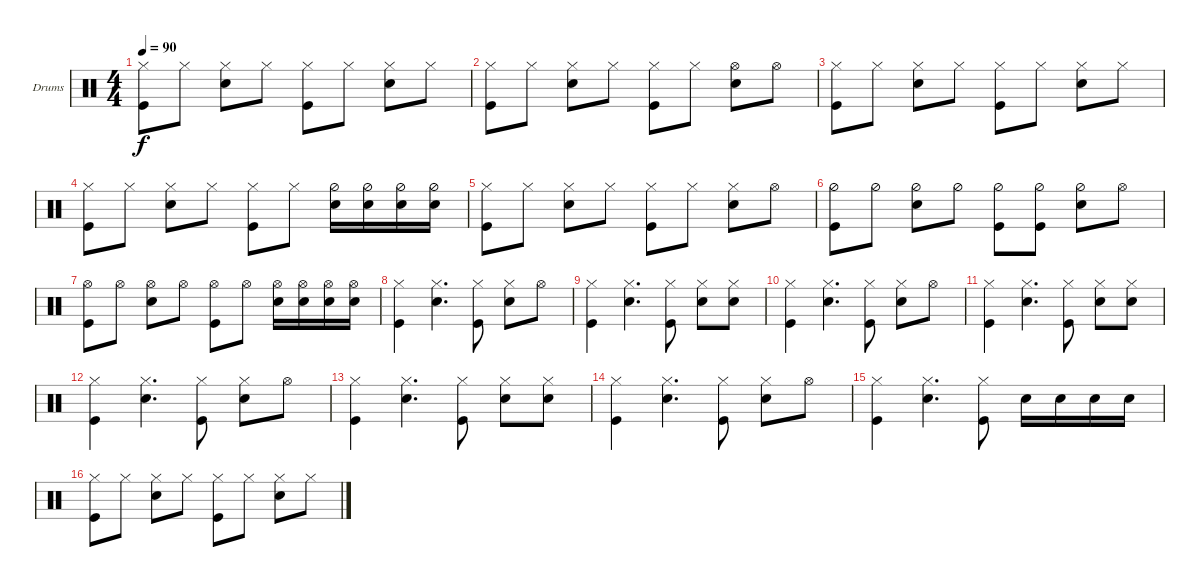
\bracketExtendMode groupsimilarinstruments
\firstSystemTrackNameOrientation horizontal
\otherSystemsTrackNameOrientation horizontal
\track ("Drumkit" "Drums") {instrument percussion}
\staff {score}
\articulation defaults
\ts (4 4)
\tempo 90
\clef neutral
\ks c
("Kick (hit)" "Hi-Hat (closed)").8{dy f} "Hi-Hat (closed)".8 ("Hi-Hat (closed)" "Snare (hit) 2").8 "Hi-Hat (closed)".8 ("Hi-Hat (closed)" "Kick (hit)").8 "Hi-Hat (closed)".8 ("Hi-Hat (closed)" "Snare (hit) 2").8 "Hi-Hat (closed)".8 |
("Hi-Hat (closed)" "Kick (hit)").8 "Hi-Hat (closed)".8 ("Hi-Hat (closed)" "Snare (hit) 2").8 "Hi-Hat (closed)".8 ("Hi-Hat (closed)" "Kick (hit)").8 "Hi-Hat (closed)".8 ("Hi-Hat (open)" "Snare (hit) 2").8 "Hi-Hat (open)".8 |
("Kick (hit)" "Hi-Hat (closed)").8 "Hi-Hat (closed)".8 ("Hi-Hat (closed)" "Snare (hit) 2").8 "Hi-Hat (closed)".8 ("Hi-Hat (closed)" "Kick (hit)").8 "Hi-Hat (closed)".8 ("Hi-Hat (closed)" "Snare (hit) 2").8 "Hi-Hat (closed)".8 |
("Hi-Hat (closed)" "Kick (hit)").8 "Hi-Hat (closed)".8 ("Hi-Hat (closed)" "Snare (hit) 2").8 "Hi-Hat (closed)".8 ("Hi-Hat (closed)" "Kick (hit)").8 "Hi-Hat (closed)".8 ("Hi-Hat (half)" "Snare (hit) 2").16 ("Hi-Hat (half)" "Snare (hit) 2").16 ("Snare (hit) 2" "Hi-Hat (half)").16 ("Snare (hit) 2" "Hi-Hat (half)").16 |
("Kick (hit)" "Hi-Hat (closed)").8 "Hi-Hat (closed)".8 ("Hi-Hat (closed)" "Snare (hit) 2").8 "Hi-Hat (closed)".8 ("Hi-Hat (closed)" "Kick (hit)").8 "Hi-Hat (closed)".8 ("Hi-Hat (closed)" "Snare (hit) 2").8 "Hi-Hat (open)".8 |
("Hi-Hat (half)" "Kick (hit)").8 "Hi-Hat (half)".8 ("Hi-Hat (half)" "Snare (hit) 2").8 "Hi-Hat (half)".8 ("Hi-Hat (half)" "Kick (hit)").8 ("Hi-Hat (half)" "Kick (hit)").8 ("Hi-Hat (half)" "Snare (hit) 2").8 "Hi-Hat (open)".8 |
("Hi-Hat (open)" "Kick (hit)").8 "Hi-Hat (open)".8 ("Hi-Hat (open)" "Snare (hit) 2").8 "Hi-Hat (open)".8 ("Hi-Hat (open)" "Kick (hit)").8 "Hi-Hat (open)".8 ("Hi-Hat (open)" "Snare (hit) 2").16 ("Hi-Hat (open)" "Snare (hit) 2").16 ("Snare (hit) 2" "Hi-Hat (open)").16 ("Snare (hit) 2" "Hi-Hat (open)").16 |
("Kick (hit)" "Hi-Hat (closed)").4 ("Snare (hit) 2" "Hi-Hat (closed)").4{d} ("Kick (hit)" "Hi-Hat (closed)").8 ("Snare (hit) 2" "Hi-Hat (closed)").8 "Hi-Hat (open)".8 |
("Kick (hit)" "Hi-Hat (closed)").4 ("Snare (hit) 2" "Hi-Hat (closed)").4{d} ("Kick (hit)" "Hi-Hat (closed)").8 ("Snare (hit) 2" "Hi-Hat (closed)").8 ("Snare (hit) 2" "Hi-Hat (closed)").8 |
("Kick (hit)" "Hi-Hat (closed)").4 ("Snare (hit) 2" "Hi-Hat (closed)").4{d} ("Kick (hit)" "Hi-Hat (closed)").8 ("Snare (hit) 2" "Hi-Hat (closed)").8 "Hi-Hat (open)".8 |
("Kick (hit)" "Hi-Hat (closed)").4 ("Snare (hit) 2" "Hi-Hat (closed)").4{d} ("Kick (hit)" "Hi-Hat (closed)").8 ("Snare (hit) 2" "Hi-Hat (closed)").8 ("Snare (hit) 2" "Hi-Hat (closed)").8 |
("Kick (hit)" "Hi-Hat (closed)").4 ("Snare (hit) 2" "Hi-Hat (closed)").4{d} ("Kick (hit)" "Hi-Hat (closed)").8 ("Snare (hit) 2" "Hi-Hat (closed)").8 "Hi-Hat (open)".8 |
("Kick (hit)" "Hi-Hat (closed)").4 ("Snare (hit) 2" "Hi-Hat (closed)").4{d} ("Kick (hit)" "Hi-Hat (closed)").8 ("Snare (hit) 2" "Hi-Hat (closed)").8 ("Snare (hit) 2" "Hi-Hat (closed)").8 |
("Kick (hit)" "Hi-Hat (closed)").4 ("Snare (hit) 2" "Hi-Hat (closed)").4{d} ("Kick (hit)" "Hi-Hat (closed)").8 ("Snare (hit) 2" "Hi-Hat (closed)").8 "Hi-Hat (open)".8 |
("Kick (hit)" "Hi-Hat (closed)").4 ("Snare (hit) 2" "Hi-Hat (closed)").4{d} ("Kick (hit)" "Hi-Hat (closed)").8 "Snare (hit) 2".16 "Snare (hit) 2".16 "Snare (hit) 2".16 "Snare (hit) 2".16 |
("Kick (hit)" "Hi-Hat (closed)").8 "Hi-Hat (closed)".8 ("Hi-Hat (closed)" "Snare (hit) 2").8 "Hi-Hat (closed)".8 ("Hi-Hat (closed)" "Kick (hit)").8 "Hi-Hat (closed)".8 ("Hi-Hat (closed)" "Snare (hit) 2").8 "Hi-Hat (closed)".8
